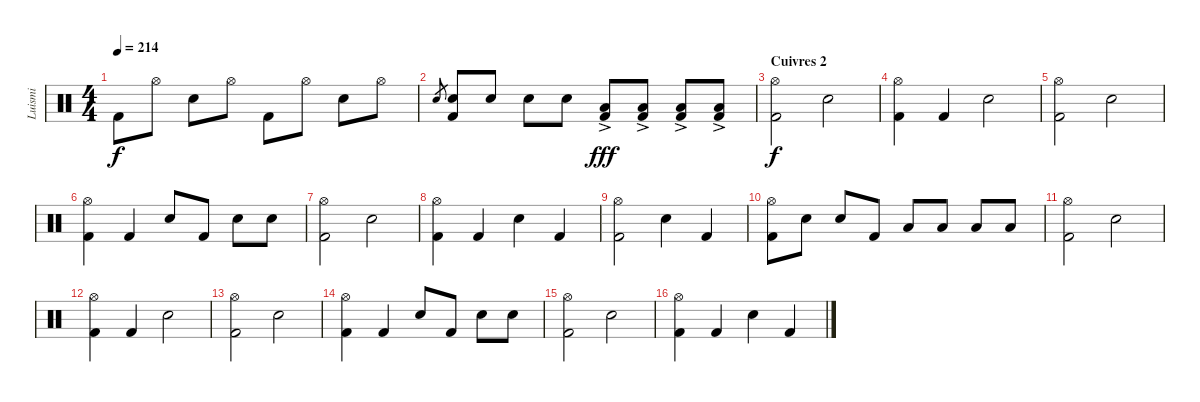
\track ("Luismi" "Luismi") {instrument percussion}
\staff {score}
\articulation defaults
\ts (4 4)
\tempo 214
\clef neutral
\ks c "Kick (hit) 2".8{dy f} "Hi-Hat (open)".8 "Snare (hit) 2".8 "Hi-Hat (open)".8 "Kick (hit) 2".8 "Hi-Hat (open)".8 "Snare (hit) 2".8 "Hi-Hat (open)".8
|
"Snare (hit) 2".8{gr} ("Snare (hit) 2" "Kick (hit) 2").8 "Snare (hit) 2".8 "Snare (hit) 2".8 "Snare (hit) 2".8 ("Low Floor Tom (hit)"{ac} "Kick (hit) 2").8{dy fff} ("Low Floor Tom (hit)"{ac} "Kick (hit) 2").8 ("Low Floor Tom (hit)"{ac} "Kick (hit) 2").8 ("Low Floor Tom (hit)"{ac} "Kick (hit) 2").8 |
\section ("" "Cuivres 2")
("Hi-Hat (open)" "Kick (hit) 2").2{dy f} "Snare (hit) 2".2 |
("Hi-Hat (open)" "Kick (hit) 2").4 "Kick (hit) 2".4 "Snare (hit) 2".2 |
("Hi-Hat (open)" "Kick (hit) 2").2 "Snare (hit) 2".2 |
("Hi-Hat (open)" "Kick (hit) 2").4 "Kick (hit) 2".4 "Snare (hit) 2".8 "Kick (hit) 2".8 "Snare (hit) 2".8 "Snare (hit) 2".8 |
("Hi-Hat (open)" "Kick (hit) 2").2 "Snare (hit) 2".2 |
("Hi-Hat (open)" "Kick (hit) 2").4 "Kick (hit) 2".4 "Snare (hit) 2".4 "Kick (hit) 2".4 |
("Hi-Hat (open)" "Kick (hit) 2").2 "Snare (hit) 2".4 "Kick (hit) 2".4 |
("Hi-Hat (open)" "Kick (hit) 2").8 "Snare (hit) 2".8 "Snare (hit) 2".8 "Kick (hit) 2".8 "Low Tom (hit)".8 "Low Tom (hit)".8 "Low Floor Tom (hit)".8 "Low Floor Tom (hit)".8 |
("Hi-Hat (open)" "Kick (hit) 2").2 "Snare (hit) 2".2 |
("Hi-Hat (open)" "Kick (hit) 2").4 "Kick (hit) 2".4 "Snare (hit) 2".2 |
("Hi-Hat (open)" "Kick (hit) 2").2 "Snare (hit) 2".2 |
("Hi-Hat (open)" "Kick (hit) 2").4 "Kick (hit) 2".4 "Snare (hit) 2".8 "Kick (hit) 2".8 "Snare (hit) 2".8 "Snare (hit) 2".8 |
("Hi-Hat (open)" "Kick (hit) 2").2 "Snare (hit) 2".2 |
("Hi-Hat (open)" "Kick (hit) 2").4 "Kick (hit) 2".4 "Snare (hit) 2".4 "Kick (hit) 2".4
